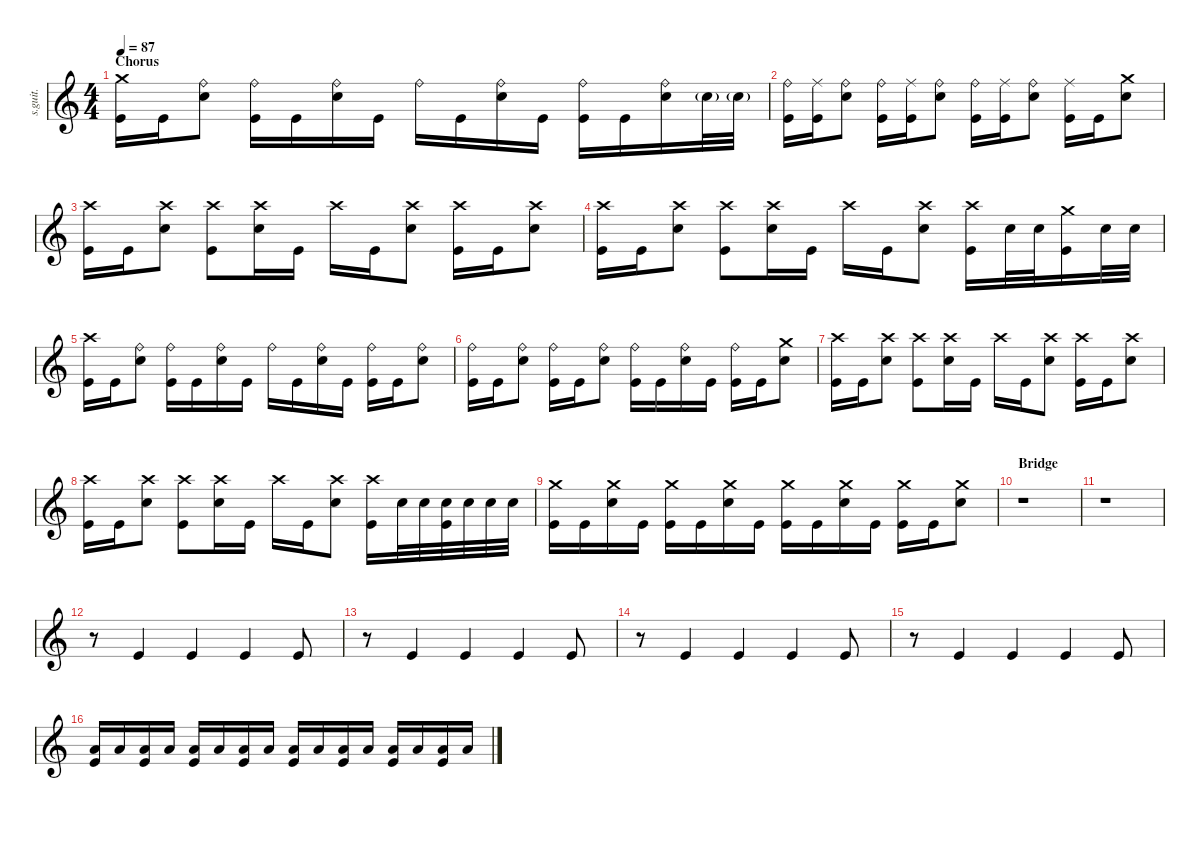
\defaultSystemsLayout 4
\hideDynamics
\bracketExtendMode nobrackets
\track ("Taylor Hawkins (Drums)" "s.guit.") {instrument percussion}
\staff {score}
\articulation defaults
\ts (4 4)
\section ("" "Chorus")
\tempo 87
\clef g2
\ks c
("Crash medium (hit)" "Kick (hit)").16{lyrics (0 "") lyrics (1 "") lyrics (2 "") lyrics (3 "") lyrics (4 "") dy f} "Kick (hit)".16{lyrics (0 "") lyrics (1 "") lyrics (2 "") lyrics (3 "") lyrics (4 "")} ("Ride (bell)" "Snare (hit) 2").8{lyrics (0 "") lyrics (1 "") lyrics (2 "") lyrics (3 "") lyrics (4 "")} ("Ride (bell)" "Kick (hit)").16{lyrics (0 "") lyrics (1 "") lyrics (2 "") lyrics (3 "") lyrics (4 "")} "Kick (hit)".16{lyrics (0 "") lyrics (1 "") lyrics (2 "") lyrics (3 "") lyrics (4 "")} ("Ride (bell)" "Snare (hit) 2").16{lyrics (0 "") lyrics (1 "") lyrics (2 "") lyrics (3 "") lyrics (4 "")} "Kick (hit)".16{lyrics (0 "") lyrics (1 "") lyrics (2 "") lyrics (3 "") lyrics (4 "")} "Ride (bell)".16{lyrics (0 "") lyrics (1 "") lyrics (2 "") lyrics (3 "") lyrics (4 "")} "Kick (hit)".16{lyrics (0 "") lyrics (1 "") lyrics (2 "") lyrics (3 "") lyrics (4 "")} ("Ride (bell)" "Snare (hit) 2").16{lyrics (0 "") lyrics (1 "") lyrics (2 "") lyrics (3 "") lyrics (4 "")} "Kick (hit)".16{lyrics (0 "") lyrics (1 "") lyrics (2 "") lyrics (3 "") lyrics (4 "")} ("Ride (bell)" "Kick (hit)").16{lyrics (0 "") lyrics (1 "") lyrics (2 "") lyrics (3 "") lyrics (4 "")} "Kick (hit)".16{lyrics (0 "") lyrics (1 "") lyrics (2 "") lyrics (3 "") lyrics (4 "")} ("Ride (bell)" "Snare (hit) 2").16{lyrics (0 "") lyrics (1 "") lyrics (2 "") lyrics (3 "") lyrics (4 "")} "Snare (hit) 2"{g}.32{lyrics (0 "") lyrics (1 "") lyrics (2 "") lyrics (3 "") lyrics (4 "") dy pp} "Snare (hit) 2"{g}.32{lyrics (0 "") lyrics (1 "") lyrics (2 "") lyrics (3 "") lyrics (4 "")} |
("Ride (bell)" "Kick (hit)").16{lyrics (0 "") lyrics (1 "") lyrics (2 "") lyrics (3 "") lyrics (4 "") dy f} ("Ride (middle)" "Kick (hit)").16{lyrics (0 "") lyrics (1 "") lyrics (2 "") lyrics (3 "") lyrics (4 "")} ("Ride (bell)" "Snare (hit) 2").8{lyrics (0 "") lyrics (1 "") lyrics (2 "") lyrics (3 "") lyrics (4 "")} ("Ride (bell)" "Kick (hit)").16{lyrics (0 "") lyrics (1 "") lyrics (2 "") lyrics (3 "") lyrics (4 "")} ("Ride (middle)" "Kick (hit)").16{lyrics (0 "") lyrics (1 "") lyrics (2 "") lyrics (3 "") lyrics (4 "")} ("Ride (bell)" "Snare (hit) 2").8{lyrics (0 "") lyrics (1 "") lyrics (2 "") lyrics (3 "") lyrics (4 "")} ("Ride (bell)" "Kick (hit)").16{lyrics (0 "") lyrics (1 "") lyrics (2 "") lyrics (3 "") lyrics (4 "")} ("Ride (middle)" "Kick (hit)").16{lyrics (0 "") lyrics (1 "") lyrics (2 "") lyrics (3 "") lyrics (4 "")} ("Ride (bell)" "Snare (hit) 2").8{lyrics (0 "") lyrics (1 "") lyrics (2 "") lyrics (3 "") lyrics (4 "")} ("Ride (middle)" "Kick (hit)").16{lyrics (0 "") lyrics (1 "") lyrics (2 "") lyrics (3 "") lyrics (4 "")} "Kick (hit)".16{lyrics (0 "") lyrics (1 "") lyrics (2 "") lyrics (3 "") lyrics (4 "")} ("Crash medium (hit)" "Snare (hit) 2").8{lyrics (0 "") lyrics (1 "") lyrics (2 "") lyrics (3 "") lyrics (4 "")} |
("Crash high (hit)" "Kick (hit)").16{lyrics (0 "") lyrics (1 "") lyrics (2 "") lyrics (3 "") lyrics (4 "")} "Kick (hit)".16{lyrics (0 "") lyrics (1 "") lyrics (2 "") lyrics (3 "") lyrics (4 "")} ("Crash high (hit)" "Snare (hit) 2").8{lyrics (0 "") lyrics (1 "") lyrics (2 "") lyrics (3 "") lyrics (4 "")} ("Crash high (hit)" "Kick (hit)").8{lyrics (0 "") lyrics (1 "") lyrics (2 "") lyrics (3 "") lyrics (4 "")} ("Crash high (hit)" "Snare (hit) 2").16{lyrics (0 "") lyrics (1 "") lyrics (2 "") lyrics (3 "") lyrics (4 "")} "Kick (hit)".16{lyrics (0 "") lyrics (1 "") lyrics (2 "") lyrics (3 "") lyrics (4 "")} "Crash high (hit)".16{lyrics (0 "") lyrics (1 "") lyrics (2 "") lyrics (3 "") lyrics (4 "")} "Kick (hit)".16{lyrics (0 "") lyrics (1 "") lyrics (2 "") lyrics (3 "") lyrics (4 "")} ("Crash high (hit)" "Snare (hit) 2").8{lyrics (0 "") lyrics (1 "") lyrics (2 "") lyrics (3 "") lyrics (4 "")} ("Crash high (hit)" "Kick (hit)").16{lyrics (0 "") lyrics (1 "") lyrics (2 "") lyrics (3 "") lyrics (4 "")} "Kick (hit)".16{lyrics (0 "") lyrics (1 "") lyrics (2 "") lyrics (3 "") lyrics (4 "")} ("Crash high (hit)" "Snare (hit) 2").8{lyrics (0 "") lyrics (1 "") lyrics (2 "") lyrics (3 "") lyrics (4 "")} |
("Crash high (hit)" "Kick (hit)").16{lyrics (0 "") lyrics (1 "") lyrics (2 "") lyrics (3 "") lyrics (4 "")} "Kick (hit)".16{lyrics (0 "") lyrics (1 "") lyrics (2 "") lyrics (3 "") lyrics (4 "")} ("Crash high (hit)" "Snare (hit) 2").8{lyrics (0 "") lyrics (1 "") lyrics (2 "") lyrics (3 "") lyrics (4 "")} ("Crash high (hit)" "Kick (hit)").8{lyrics (0 "") lyrics (1 "") lyrics (2 "") lyrics (3 "") lyrics (4 "")} ("Crash high (hit)" "Snare (hit) 2").16{lyrics (0 "") lyrics (1 "") lyrics (2 "") lyrics (3 "") lyrics (4 "")} "Kick (hit)".16{lyrics (0 "") lyrics (1 "") lyrics (2 "") lyrics (3 "") lyrics (4 "")} "Crash high (hit)".16{lyrics (0 "") lyrics (1 "") lyrics (2 "") lyrics (3 "") lyrics (4 "")} "Kick (hit)".16{lyrics (0 "") lyrics (1 "") lyrics (2 "") lyrics (3 "") lyrics (4 "")} ("Crash high (hit)" "Snare (hit) 2").8{lyrics (0 "") lyrics (1 "") lyrics (2 "") lyrics (3 "") lyrics (4 "")} ("Crash high (hit)" "Kick (hit)").16{lyrics (0 "") lyrics (1 "") lyrics (2 "") lyrics (3 "") lyrics (4 "")} "Snare (hit) 2".32{lyrics (0 "") lyrics (1 "") lyrics (2 "") lyrics (3 "") lyrics (4 "")} "Snare (hit) 2".32{lyrics (0 "") lyrics (1 "") lyrics (2 "") lyrics (3 "") lyrics (4 "")} ("Crash medium (hit)" "Kick (hit)").16{lyrics (0 "") lyrics (1 "") lyrics (2 "") lyrics (3 "") lyrics (4 "")} "Snare (hit) 2".32{lyrics (0 "") lyrics (1 "") lyrics (2 "") lyrics (3 "") lyrics (4 "")} "Snare (hit) 2".32{lyrics (0 "") lyrics (1 "") lyrics (2 "") lyrics (3 "") lyrics (4 "")} |
("Crash high (hit)" "Kick (hit)").16{lyrics (0 "") lyrics (1 "") lyrics (2 "") lyrics (3 "") lyrics (4 "")} "Kick (hit)".16{lyrics (0 "") lyrics (1 "") lyrics (2 "") lyrics (3 "") lyrics (4 "")} ("Ride (bell)" "Snare (hit) 2").8{lyrics (0 "") lyrics (1 "") lyrics (2 "") lyrics (3 "") lyrics (4 "")} ("Ride (bell)" "Kick (hit)").16{lyrics (0 "") lyrics (1 "") lyrics (2 "") lyrics (3 "") lyrics (4 "")} "Kick (hit)".16{lyrics (0 "") lyrics (1 "") lyrics (2 "") lyrics (3 "") lyrics (4 "")} ("Ride (bell)" "Snare (hit) 2").16{lyrics (0 "") lyrics (1 "") lyrics (2 "") lyrics (3 "") lyrics (4 "")} "Kick (hit)".16{lyrics (0 "") lyrics (1 "") lyrics (2 "") lyrics (3 "") lyrics (4 "")} "Ride (bell)".16{lyrics (0 "") lyrics (1 "") lyrics (2 "") lyrics (3 "") lyrics (4 "")} "Kick (hit)".16{lyrics (0 "") lyrics (1 "") lyrics (2 "") lyrics (3 "") lyrics (4 "")} ("Ride (bell)" "Snare (hit) 2").16{lyrics (0 "") lyrics (1 "") lyrics (2 "") lyrics (3 "") lyrics (4 "")} "Kick (hit)".16{lyrics (0 "") lyrics (1 "") lyrics (2 "") lyrics (3 "") lyrics (4 "")} ("Ride (bell)" "Kick (hit)").16{lyrics (0 "") lyrics (1 "") lyrics (2 "") lyrics (3 "") lyrics (4 "")} "Kick (hit)".16{lyrics (0 "") lyrics (1 "") lyrics (2 "") lyrics (3 "") lyrics (4 "")} ("Ride (bell)" "Snare (hit) 2").8{lyrics (0 "") lyrics (1 "") lyrics (2 "") lyrics (3 "") lyrics (4 "")} |
("Ride (bell)" "Kick (hit)").16{lyrics (0 "") lyrics (1 "") lyrics (2 "") lyrics (3 "") lyrics (4 "")} "Kick (hit)".16{lyrics (0 "") lyrics (1 "") lyrics (2 "") lyrics (3 "") lyrics (4 "")} ("Ride (bell)" "Snare (hit) 2").8{lyrics (0 "") lyrics (1 "") lyrics (2 "") lyrics (3 "") lyrics (4 "")} ("Ride (bell)" "Kick (hit)").16{lyrics (0 "") lyrics (1 "") lyrics (2 "") lyrics (3 "") lyrics (4 "")} "Kick (hit)".16{lyrics (0 "") lyrics (1 "") lyrics (2 "") lyrics (3 "") lyrics (4 "")} ("Ride (bell)" "Snare (hit) 2").8{lyrics (0 "") lyrics (1 "") lyrics (2 "") lyrics (3 "") lyrics (4 "")} ("Ride (bell)" "Kick (hit)").16{lyrics (0 "") lyrics (1 "") lyrics (2 "") lyrics (3 "") lyrics (4 "")} "Kick (hit)".16{lyrics (0 "") lyrics (1 "") lyrics (2 "") lyrics (3 "") lyrics (4 "")} ("Ride (bell)" "Snare (hit) 2").16{lyrics (0 "") lyrics (1 "") lyrics (2 "") lyrics (3 "") lyrics (4 "")} "Kick (hit)".16{lyrics (0 "") lyrics (1 "") lyrics (2 "") lyrics (3 "") lyrics (4 "")} ("Ride (bell)" "Kick (hit)").16{lyrics (0 "") lyrics (1 "") lyrics (2 "") lyrics (3 "") lyrics (4 "")} "Kick (hit)".16{lyrics (0 "") lyrics (1 "") lyrics (2 "") lyrics (3 "") lyrics (4 "")} ("Crash medium (hit)" "Snare (hit) 2").8{lyrics (0 "") lyrics (1 "") lyrics (2 "") lyrics (3 "") lyrics (4 "")} |
("Crash high (hit)" "Kick (hit)").16{lyrics (0 "") lyrics (1 "") lyrics (2 "") lyrics (3 "") lyrics (4 "")} "Kick (hit)".16{lyrics (0 "") lyrics (1 "") lyrics (2 "") lyrics (3 "") lyrics (4 "")} ("Crash high (hit)" "Snare (hit) 2").8{lyrics (0 "") lyrics (1 "") lyrics (2 "") lyrics (3 "") lyrics (4 "")} ("Crash high (hit)" "Kick (hit)").8{lyrics (0 "") lyrics (1 "") lyrics (2 "") lyrics (3 "") lyrics (4 "")} ("Crash high (hit)" "Snare (hit) 2").16{lyrics (0 "") lyrics (1 "") lyrics (2 "") lyrics (3 "") lyrics (4 "")} "Kick (hit)".16{lyrics (0 "") lyrics (1 "") lyrics (2 "") lyrics (3 "") lyrics (4 "")} "Crash high (hit)".16{lyrics (0 "") lyrics (1 "") lyrics (2 "") lyrics (3 "") lyrics (4 "")} "Kick (hit)".16{lyrics (0 "") lyrics (1 "") lyrics (2 "") lyrics (3 "") lyrics (4 "")} ("Crash high (hit)" "Snare (hit) 2").8{lyrics (0 "") lyrics (1 "") lyrics (2 "") lyrics (3 "") lyrics (4 "")} ("Crash high (hit)" "Kick (hit)").16{lyrics (0 "") lyrics (1 "") lyrics (2 "") lyrics (3 "") lyrics (4 "")} "Kick (hit)".16{lyrics (0 "") lyrics (1 "") lyrics (2 "") lyrics (3 "") lyrics (4 "")} ("Crash high (hit)" "Snare (hit) 2").8{lyrics (0 "") lyrics (1 "") lyrics (2 "") lyrics (3 "") lyrics (4 "")} |
("Crash high (hit)" "Kick (hit)").16{lyrics (0 "") lyrics (1 "") lyrics (2 "") lyrics (3 "") lyrics (4 "")} "Kick (hit)".16{lyrics (0 "") lyrics (1 "") lyrics (2 "") lyrics (3 "") lyrics (4 "")} ("Crash high (hit)" "Snare (hit) 2").8{lyrics (0 "") lyrics (1 "") lyrics (2 "") lyrics (3 "") lyrics (4 "")} ("Crash high (hit)" "Kick (hit)").8{lyrics (0 "") lyrics (1 "") lyrics (2 "") lyrics (3 "") lyrics (4 "")} ("Crash high (hit)" "Snare (hit) 2").16{lyrics (0 "") lyrics (1 "") lyrics (2 "") lyrics (3 "") lyrics (4 "")} "Kick (hit)".16{lyrics (0 "") lyrics (1 "") lyrics (2 "") lyrics (3 "") lyrics (4 "")} "Crash high (hit)".16{lyrics (0 "") lyrics (1 "") lyrics (2 "") lyrics (3 "") lyrics (4 "")} "Kick (hit)".16{lyrics (0 "") lyrics (1 "") lyrics (2 "") lyrics (3 "") lyrics (4 "")} ("Crash high (hit)" "Snare (hit) 2").8{lyrics (0 "") lyrics (1 "") lyrics (2 "") lyrics (3 "") lyrics (4 "")} ("Crash high (hit)" "Kick (hit)").16{lyrics (0 "") lyrics (1 "") lyrics (2 "") lyrics (3 "") lyrics (4 "")} "Snare (hit) 2".32{lyrics (0 "") lyrics (1 "") lyrics (2 "") lyrics (3 "") lyrics (4 "")} "Snare (hit) 2".32{lyrics (0 "") lyrics (1 "") lyrics (2 "") lyrics (3 "") lyrics (4 "")} ("Snare (hit) 2" "Kick (hit)").32{lyrics (0 "") lyrics (1 "") lyrics (2 "") lyrics (3 "") lyrics (4 "")} "Snare (hit) 2".32{lyrics (0 "") lyrics (1 "") lyrics (2 "") lyrics (3 "") lyrics (4 "")} "Snare (hit) 2".32{lyrics (0 "") lyrics (1 "") lyrics (2 "") lyrics (3 "") lyrics (4 "")} "Snare (hit) 2".32{lyrics (0 "") lyrics (1 "") lyrics (2 "") lyrics (3 "") lyrics (4 "")} |
("Crash medium (hit)" "Kick (hit)").16{lyrics (0 "") lyrics (1 "") lyrics (2 "") lyrics (3 "") lyrics (4 "")} "Kick (hit)".16{lyrics (0 "") lyrics (1 "") lyrics (2 "") lyrics (3 "") lyrics (4 "")} ("Crash medium (hit)" "Snare (hit) 2").16{lyrics (0 "") lyrics (1 "") lyrics (2 "") lyrics (3 "") lyrics (4 "")} "Kick (hit)".16{lyrics (0 "") lyrics (1 "") lyrics (2 "") lyrics (3 "") lyrics (4 "")} ("Crash medium (hit)" "Kick (hit)").16{lyrics (0 "") lyrics (1 "") lyrics (2 "") lyrics (3 "") lyrics (4 "")} "Kick (hit)".16{lyrics (0 "") lyrics (1 "") lyrics (2 "") lyrics (3 "") lyrics (4 "")} ("Crash medium (hit)" "Snare (hit) 2").16{lyrics (0 "") lyrics (1 "") lyrics (2 "") lyrics (3 "") lyrics (4 "")} "Kick (hit)".16{lyrics (0 "") lyrics (1 "") lyrics (2 "") lyrics (3 "") lyrics (4 "")} ("Crash medium (hit)" "Kick (hit)").16{lyrics (0 "") lyrics (1 "") lyrics (2 "") lyrics (3 "") lyrics (4 "")} "Kick (hit)".16{lyrics (0 "") lyrics (1 "") lyrics (2 "") lyrics (3 "") lyrics (4 "")} ("Crash medium (hit)" "Snare (hit) 2").16{lyrics (0 "") lyrics (1 "") lyrics (2 "") lyrics (3 "") lyrics (4 "")} "Kick (hit)".16{lyrics (0 "") lyrics (1 "") lyrics (2 "") lyrics (3 "") lyrics (4 "")} ("Crash medium (hit)" "Kick (hit)").16{lyrics (0 "") lyrics (1 "") lyrics (2 "") lyrics (3 "") lyrics (4 "")} "Kick (hit)".16{lyrics (0 "") lyrics (1 "") lyrics (2 "") lyrics (3 "") lyrics (4 "")} ("Crash medium (hit)" "Snare (hit) 2").8{lyrics (0 "") lyrics (1 "") lyrics (2 "") lyrics (3 "") lyrics (4 "")} |
\section ("" "Bridge")
r.1 |
r.1 |
r.8 "Kick (hit)".4{lyrics (0 "") lyrics (1 "") lyrics (2 "") lyrics (3 "") lyrics (4 "")} "Kick (hit)".4{lyrics (0 "") lyrics (1 "") lyrics (2 "") lyrics (3 "") lyrics (4 "")} "Kick (hit)".4{lyrics (0 "") lyrics (1 "") lyrics (2 "") lyrics (3 "") lyrics (4 "")} "Kick (hit)".8{lyrics (0 "") lyrics (1 "") lyrics (2 "") lyrics (3 "") lyrics (4 "")} |
r.8 "Kick (hit)".4{lyrics (0 "") lyrics (1 "") lyrics (2 "") lyrics (3 "") lyrics (4 "")} "Kick (hit)".4{lyrics (0 "") lyrics (1 "") lyrics (2 "") lyrics (3 "") lyrics (4 "")} "Kick (hit)".4{lyrics (0 "") lyrics (1 "") lyrics (2 "") lyrics (3 "") lyrics (4 "")} "Kick (hit)".8{lyrics (0 "") lyrics (1 "") lyrics (2 "") lyrics (3 "") lyrics (4 "")} |
r.8 "Kick (hit)".4{lyrics (0 "") lyrics (1 "") lyrics (2 "") lyrics (3 "") lyrics (4 "")} "Kick (hit)".4{lyrics (0 "") lyrics (1 "") lyrics (2 "") lyrics (3 "") lyrics (4 "")} "Kick (hit)".4{lyrics (0 "") lyrics (1 "") lyrics (2 "") lyrics (3 "") lyrics (4 "")} "Kick (hit)".8{lyrics (0 "") lyrics (1 "") lyrics (2 "") lyrics (3 "") lyrics (4 "")} |
r.8 "Kick (hit)".4{lyrics (0 "") lyrics (1 "") lyrics (2 "") lyrics (3 "") lyrics (4 "")} "Kick (hit)".4{lyrics (0 "") lyrics (1 "") lyrics (2 "") lyrics (3 "") lyrics (4 "")} "Kick (hit)".4{lyrics (0 "") lyrics (1 "") lyrics (2 "") lyrics (3 "") lyrics (4 "")} "Kick (hit)".8{lyrics (0 "") lyrics (1 "") lyrics (2 "") lyrics (3 "") lyrics (4 "")} |
("Low Floor Tom (hit)" "Kick (hit)").16{lyrics (0 "") lyrics (1 "") lyrics (2 "") lyrics (3 "") lyrics (4 "")} "Low Floor Tom (hit)".16{lyrics (0 "") lyrics (1 "") lyrics (2 "") lyrics (3 "") lyrics (4 "")} ("Low Floor Tom (hit)" "Kick (hit)").16{lyrics (0 "") lyrics (1 "") lyrics (2 "") lyrics (3 "") lyrics (4 "")} "Low Floor Tom (hit)".16{lyrics (0 "") lyrics (1 "") lyrics (2 "") lyrics (3 "") lyrics (4 "")} ("Low Floor Tom (hit)" "Kick (hit)").16{lyrics (0 "") lyrics (1 "") lyrics (2 "") lyrics (3 "") lyrics (4 "")} "Low Floor Tom (hit)".16{lyrics (0 "") lyrics (1 "") lyrics (2 "") lyrics (3 "") lyrics (4 "")} ("Low Floor Tom (hit)" "Kick (hit)").16{lyrics (0 "") lyrics (1 "") lyrics (2 "") lyrics (3 "") lyrics (4 "")} "Low Floor Tom (hit)".16{lyrics (0 "") lyrics (1 "") lyrics (2 "") lyrics (3 "") lyrics (4 "")} ("Low Floor Tom (hit)" "Kick (hit)").16{lyrics (0 "") lyrics (1 "") lyrics (2 "") lyrics (3 "") lyrics (4 "")} "Low Floor Tom (hit)".16{lyrics (0 "") lyrics (1 "") lyrics (2 "") lyrics (3 "") lyrics (4 "")} ("Low Floor Tom (hit)" "Kick (hit)").16{lyrics (0 "") lyrics (1 "") lyrics (2 "") lyrics (3 "") lyrics (4 "")} "Low Floor Tom (hit)".16{lyrics (0 "") lyrics (1 "") lyrics (2 "") lyrics (3 "") lyrics (4 "")} ("Low Floor Tom (hit)" "Kick (hit)").16{lyrics (0 "") lyrics (1 "") lyrics (2 "") lyrics (3 "") lyrics (4 "")} "Low Floor Tom (hit)".16{lyrics (0 "") lyrics (1 "") lyrics (2 "") lyrics (3 "") lyrics (4 "")} ("Low Floor Tom (hit)" "Kick (hit)").16{lyrics (0 "") lyrics (1 "") lyrics (2 "") lyrics (3 "") lyrics (4 "")} "Low Floor Tom (hit)".16{lyrics (0 "") lyrics (1 "") lyrics (2 "") lyrics (3 "") lyrics (4 "")}
